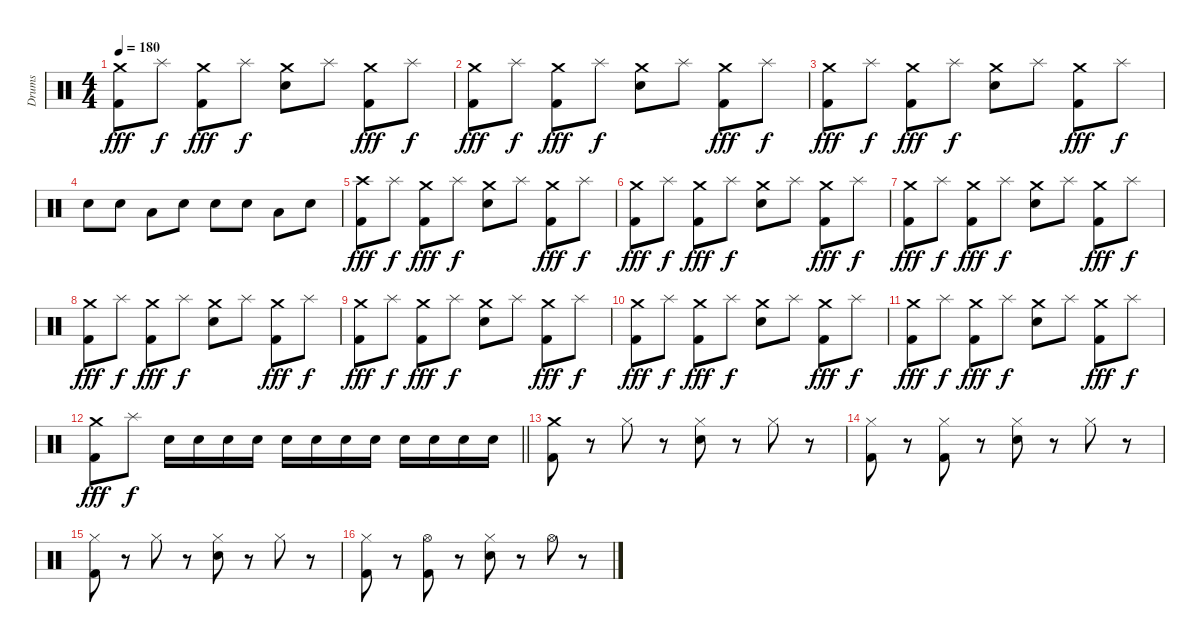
\track ("Drums" "Drums") {instrument percussion}
\staff {score}
\articulation defaults
\ts (4 4)
\tempo 180
\clef neutral
\ks c
("Crash medium (hit)" "Kick (hit) 2").8{dy fff} "Splash (hit)".8{dy f} ("Crash medium (hit)" "Kick (hit) 2").8{dy fff} "Splash (hit)".8{dy f} ("Crash medium (hit)" "Electric Snare (hit)").8 "Splash (hit)".8 ("Crash medium (hit)" "Kick (hit) 2").8{dy fff} "Splash (hit)".8{dy f} |
("Crash medium (hit)" "Kick (hit) 2").8{dy fff} "Splash (hit)".8{dy f} ("Crash medium (hit)" "Kick (hit) 2").8{dy fff} "Splash (hit)".8{dy f} ("Crash medium (hit)" "Electric Snare (hit)").8 "Splash (hit)".8 ("Crash medium (hit)" "Kick (hit) 2").8{dy fff} "Splash (hit)".8{dy f} |
("Crash medium (hit)" "Kick (hit) 2").8{dy fff} "Splash (hit)".8{dy f} ("Crash medium (hit)" "Kick (hit) 2").8{dy fff} "Splash (hit)".8{dy f} ("Crash medium (hit)" "Electric Snare (hit)").8 "Splash (hit)".8 ("Crash medium (hit)" "Kick (hit) 2").8{dy fff} "Splash (hit)".8{dy f} |
"Electric Snare (hit)".8 "Electric Snare (hit)".8 "Low Tom (hit)".8 "Electric Snare (hit)".8 "Electric Snare (hit)".8 "Electric Snare (hit)".8 "Low Tom (hit)".8 "Electric Snare (hit)".8 |
("Crash high (hit)" "Kick (hit) 2").8{dy fff} "Splash (hit)".8{dy f} ("Crash medium (hit)" "Kick (hit) 2").8{dy fff} "Splash (hit)".8{dy f} ("Crash medium (hit)" "Electric Snare (hit)").8 "Splash (hit)".8 ("Crash medium (hit)" "Kick (hit) 2").8{dy fff} "Splash (hit)".8{dy f} |
("Crash medium (hit)" "Kick (hit) 2").8{dy fff} "Splash (hit)".8{dy f} ("Crash medium (hit)" "Kick (hit) 2").8{dy fff} "Splash (hit)".8{dy f} ("Crash medium (hit)" "Electric Snare (hit)").8 "Splash (hit)".8 ("Crash medium (hit)" "Kick (hit) 2").8{dy fff} "Splash (hit)".8{dy f} |
("Crash medium (hit)" "Kick (hit) 2").8{dy fff} "Splash (hit)".8{dy f} ("Crash medium (hit)" "Kick (hit) 2").8{dy fff} "Splash (hit)".8{dy f} ("Crash medium (hit)" "Electric Snare (hit)").8 "Splash (hit)".8 ("Crash medium (hit)" "Kick (hit) 2").8{dy fff} "Splash (hit)".8{dy f} |
("Crash medium (hit)" "Kick (hit) 2").8{dy fff} "Splash (hit)".8{dy f} ("Crash medium (hit)" "Kick (hit) 2").8{dy fff} "Splash (hit)".8{dy f} ("Crash medium (hit)" "Electric Snare (hit)").8 "Splash (hit)".8 ("Crash medium (hit)" "Kick (hit) 2").8{dy fff} "Splash (hit)".8{dy f} |
("Crash medium (hit)" "Kick (hit) 2").8{dy fff} "Splash (hit)".8{dy f} ("Crash medium (hit)" "Kick (hit) 2").8{dy fff} "Splash (hit)".8{dy f} ("Crash medium (hit)" "Electric Snare (hit)").8 "Splash (hit)".8 ("Crash medium (hit)" "Kick (hit) 2").8{dy fff} "Splash (hit)".8{dy f} |
("Crash medium (hit)" "Kick (hit) 2").8{dy fff} "Splash (hit)".8{dy f} ("Crash medium (hit)" "Kick (hit) 2").8{dy fff} "Splash (hit)".8{dy f} ("Crash medium (hit)" "Electric Snare (hit)").8 "Splash (hit)".8 ("Crash medium (hit)" "Kick (hit) 2").8{dy fff} "Splash (hit)".8{dy f} |
("Crash medium (hit)" "Kick (hit) 2").8{dy fff} "Splash (hit)".8{dy f} ("Crash medium (hit)" "Kick (hit) 2").8{dy fff} "Splash (hit)".8{dy f} ("Crash medium (hit)" "Electric Snare (hit)").8 "Splash (hit)".8 ("Crash medium (hit)" "Kick (hit) 2").8{dy fff} "Splash (hit)".8{dy f} |
\barLineRight lightlight
("Crash medium (hit)" "Kick (hit) 2").8{dy fff} "Splash (hit)".8{dy f} "Electric Snare (hit)".16 "Electric Snare (hit)".16 "Electric Snare (hit)".16 "Electric Snare (hit)".16 "Electric Snare (hit)".16 "Electric Snare (hit)".16 "Electric Snare (hit)".16 "Electric Snare (hit)".16 "Electric Snare (hit)".16 "Electric Snare (hit)".16 "Electric Snare (hit)".16 "Electric Snare (hit)".16 |
("Crash medium (hit)" "Kick (hit) 2").8 r.8 "Hi-Hat (closed)".8 r.8 ("Hi-Hat (closed)" "Electric Snare (hit)").8 r.8 "Hi-Hat (closed)".8 r.8 |
("Hi-Hat (closed)" "Kick (hit) 2").8 r.8 ("Hi-Hat (closed)" "Kick (hit) 2").8 r.8 ("Hi-Hat (closed)" "Electric Snare (hit)").8 r.8 "Hi-Hat (closed)".8 r.8 |
("Hi-Hat (closed)" "Kick (hit) 2").8 r.8 "Hi-Hat (closed)".8 r.8 ("Hi-Hat (closed)" "Electric Snare (hit)").8 r.8 "Hi-Hat (closed)".8 r.8 |
("Hi-Hat (closed)" "Kick (hit) 2").8 r.8 ("Hi-Hat (open)" "Kick (hit) 2").8 r.8 ("Hi-Hat (closed)" "Electric Snare (hit)").8 r.8 "Hi-Hat (open)".8 r.8
